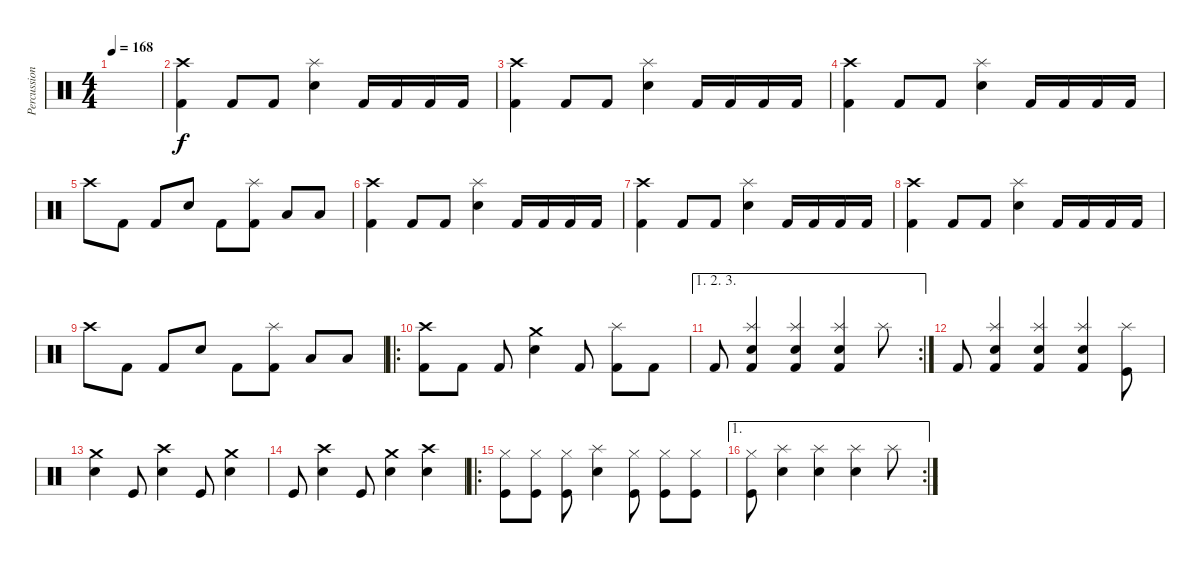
\track ("Percussion" "Percussion") {instrument percussion}
\staff {score}
\articulation defaults
\ts (4 4)
\tempo 168
\clef neutral
\ks c
|
("Crash high (hit)" "Kick (hit) 2").4 "Kick (hit) 2".8 "Kick (hit) 2".8 ("Splash (hit)" "Electric Snare (hit)").4 "Kick (hit) 2".16 "Kick (hit) 2".16 "Kick (hit) 2".16 "Kick (hit) 2".16 |
("Crash high (hit)" "Kick (hit) 2").4 "Kick (hit) 2".8 "Kick (hit) 2".8 ("Splash (hit)" "Electric Snare (hit)").4 "Kick (hit) 2".16 "Kick (hit) 2".16 "Kick (hit) 2".16 "Kick (hit) 2".16 |
("Crash high (hit)" "Kick (hit) 2").4 "Kick (hit) 2".8 "Kick (hit) 2".8 ("Splash (hit)" "Electric Snare (hit)").4 "Kick (hit) 2".16 "Kick (hit) 2".16 "Kick (hit) 2".16 "Kick (hit) 2".16 |
"Crash high (hit)".8 "Kick (hit) 2".8 "Kick (hit) 2".8 "Electric Snare (hit)".8 "Kick (hit) 2".8 ("Splash (hit)" "Kick (hit) 2").8 "Low Floor Tom (hit)".8 "Low Floor Tom (hit)".8 |
("Crash high (hit)" "Kick (hit) 2").4 "Kick (hit) 2".8 "Kick (hit) 2".8 ("Splash (hit)" "Electric Snare (hit)").4 "Kick (hit) 2".16 "Kick (hit) 2".16 "Kick (hit) 2".16 "Kick (hit) 2".16 |
("Crash high (hit)" "Kick (hit) 2").4 "Kick (hit) 2".8 "Kick (hit) 2".8 ("Splash (hit)" "Electric Snare (hit)").4 "Kick (hit) 2".16 "Kick (hit) 2".16 "Kick (hit) 2".16 "Kick (hit) 2".16 |
("Crash high (hit)" "Kick (hit) 2").4 "Kick (hit) 2".8 "Kick (hit) 2".8 ("Splash (hit)" "Electric Snare (hit)").4 "Kick (hit) 2".16 "Kick (hit) 2".16 "Kick (hit) 2".16 "Kick (hit) 2".16 |
"Crash high (hit)".8 "Kick (hit) 2".8 "Kick (hit) 2".8 "Electric Snare (hit)".8 "Kick (hit) 2".8 ("Splash (hit)" "Kick (hit) 2").8 "Low Floor Tom (hit)".8 "Low Floor Tom (hit)".8 |
\ro
("Crash high (hit)" "Kick (hit) 2").8 "Kick (hit) 2".8 "Kick (hit) 2".8 ("Crash medium (hit)" "Electric Snare (hit)").4 "Kick (hit) 2".8 ("Splash (hit)" "Kick (hit) 2").8 "Kick (hit) 2".8 |
\ae (1 2 3)
\rc 2 "Kick (hit) 2".8
("Splash (hit)" "Electric Snare (hit)" "Kick (hit) 2").4 ("Splash (hit)" "Electric Snare (hit)" "Kick (hit) 2").4 ("Splash (hit)" "Electric Snare (hit)" "Kick (hit) 2").4 "Splash (hit)".8 |
"Kick (hit) 2".8 ("Splash (hit)" "Electric Snare (hit)" "Kick (hit) 2").4 ("Splash (hit)" "Electric Snare (hit)" "Kick (hit) 2").4 ("Splash (hit)" "Electric Snare (hit)" "Kick (hit) 2").4 ("Splash (hit)" "Kick (hit)").8 |
("Crash medium (hit)" "Electric Snare (hit)").4 "Kick (hit)".8 ("Crash high (hit)" "Electric Snare (hit)").4 "Kick (hit)".8 ("Crash medium (hit)" "Electric Snare (hit)").4 |
"Kick (hit)".8 ("Crash high (hit)" "Electric Snare (hit)").4 "Kick (hit)".8 ("Crash medium (hit)" "Electric Snare (hit)").4 ("Crash high (hit)" "Electric Snare (hit)").4 |
\ro
("Hi-Hat (closed)" "Kick (hit)").8 ("Hi-Hat (closed)" "Kick (hit)").8 ("Hi-Hat (closed)" "Kick (hit)").8 ("Splash (hit)" "Electric Snare (hit)").4 ("Hi-Hat (closed)" "Kick (hit)").8 ("Hi-Hat (closed)" "Kick (hit)").8 ("Hi-Hat (closed)" "Kick (hit)").8 |
\ae 1
\rc 2
("Hi-Hat (closed)" "Kick (hit)").8 ("Splash (hit)" "Electric Snare (hit)").4 ("Splash (hit)" "Electric Snare (hit)").4 ("Splash (hit)" "Electric Snare (hit)").4 "Splash (hit)".8
